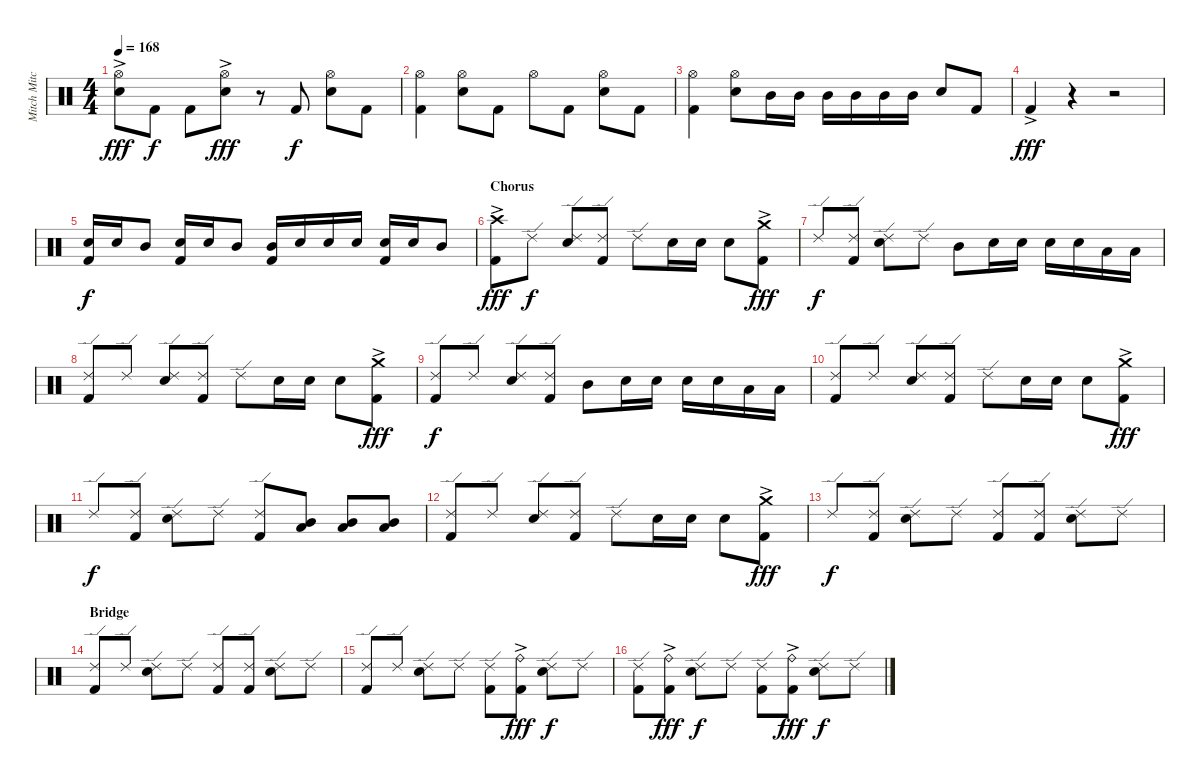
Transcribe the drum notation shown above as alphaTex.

\track ("Mitch Mitchell" "Mitch Mitc") {instrument percussion}
\staff {score}
\articulation defaults
\ts (4 4)
\tempo 168
\clef neutral
\ks c
("Hi-Hat (open)"{ac} "Snare (hit) 2"{ac}).8{dy fff} "Kick (hit) 2".8{dy f} "Kick (hit) 2".8 ("Hi-Hat (open)"{ac} "Snare (hit) 2"{ac}).8{dy fff} r.8 "Kick (hit) 2".8{dy f} ("Hi-Hat (open)" "Snare (hit) 2").8 "Kick (hit) 2".8 |
("Hi-Hat (open)" "Kick (hit) 2").4 ("Hi-Hat (open)" "Snare (hit) 2").8 "Kick (hit) 2".8 "Hi-Hat (open)".8 "Kick (hit) 2".8 ("Hi-Hat (open)" "Snare (hit) 2").8 "Kick (hit) 2".8 |
("Hi-Hat (open)" "Kick (hit) 2").4 ("Hi-Hat (open)" "Snare (hit) 2").8 "Mid Tom (hit)".16 "Mid Tom (hit)".16 "Mid Tom (hit)".16 "Mid Tom (hit)".16 "Mid Tom (hit)".16 "Mid Tom (hit)".16 "Snare (hit) 2".8 "Kick (hit) 2".8 |
"Kick (hit) 2"{ac}.4{dy fff} r.4 r.2 |
("Snare (hit) 2" "Kick (hit) 2").16{dy f} "Snare (hit) 2".16 "Mid Tom (hit)".8 ("Snare (hit) 2" "Kick (hit) 2").16 "Snare (hit) 2".16 "Mid Tom (hit)".8 ("Mid Tom (hit)" "Kick (hit) 2").16 "Snare (hit) 2".16 "Snare (hit) 2".16 "Snare (hit) 2".16 ("Snare (hit) 2" "Kick (hit) 2").16 "Snare (hit) 2".16 "Mid Tom (hit)".8 |
\section ("" "Chorus")
("Crash high (hit)"{ac} "Kick (hit) 2"{ac}).8{dy fff} "Ride (edge) 2".8{dy f} ("Ride (edge) 2" "Snare (hit) 2").8 ("Ride (edge) 2" "Kick (hit) 2").8 "Ride (edge) 2".8 "Snare (hit) 2".16 "Snare (hit) 2".16 "Snare (hit) 2".8 ("Crash medium (hit)"{ac} "Kick (hit) 2"{ac}).8{dy fff} |
"Ride (edge) 2".8{dy f} ("Ride (edge) 2" "Kick (hit) 2").8 ("Ride (edge) 2" "Snare (hit) 2").8 "Ride (edge) 2".8 "Mid Tom (hit)".8 "Snare (hit) 2".16 "Snare (hit) 2".16 "Snare (hit) 2".16 "Snare (hit) 2".16 "Low Tom (hit)".16 "Low Tom (hit)".16 |
("Ride (edge) 2" "Kick (hit) 2").8 "Ride (edge) 2".8 ("Ride (edge) 2" "Snare (hit) 2").8 ("Ride (edge) 2" "Kick (hit) 2").8 "Ride (edge) 2".8 "Snare (hit) 2".16 "Snare (hit) 2".16 "Snare (hit) 2".8 ("Crash medium (hit)"{ac} "Kick (hit) 2"{ac}).8{dy fff} |
("Ride (edge) 2" "Kick (hit) 2").8{dy f} "Ride (edge) 2".8 ("Ride (edge) 2" "Snare (hit) 2").8 ("Ride (edge) 2" "Kick (hit) 2").8 "Mid Tom (hit)".8 "Snare (hit) 2".16 "Snare (hit) 2".16 "Snare (hit) 2".16 "Snare (hit) 2".16 "Low Tom (hit)".16 "Low Tom (hit)".16 |
("Ride (edge) 2" "Kick (hit) 2").8 "Ride (edge) 2".8 ("Ride (edge) 2" "Snare (hit) 2").8 ("Ride (edge) 2" "Kick (hit) 2").8 "Ride (edge) 2".8 "Snare (hit) 2".16 "Snare (hit) 2".16 "Snare (hit) 2".8 ("Crash medium (hit)"{ac} "Kick (hit) 2"{ac}).8{dy fff} |
"Ride (edge) 2".8{dy f} ("Ride (edge) 2" "Kick (hit) 2").8 ("Ride (edge) 2" "Snare (hit) 2").8 "Ride (edge) 2".8 ("Ride (edge) 2" "Kick (hit) 2").8 ("Mid Tom (hit)" "Low Tom (hit)").8 ("Mid Tom (hit)" "Low Tom (hit)").8 ("Mid Tom (hit)" "Low Tom (hit)").8 |
("Ride (edge) 2" "Kick (hit) 2").8 "Ride (edge) 2".8 ("Ride (edge) 2" "Snare (hit) 2").8 ("Ride (edge) 2" "Kick (hit) 2").8 "Ride (edge) 2".8 "Snare (hit) 2".16 "Snare (hit) 2".16 "Snare (hit) 2".8 ("Crash medium (hit)"{ac} "Kick (hit) 2"{ac}).8{dy fff} |
"Ride (edge) 2".8{dy f} ("Ride (edge) 2" "Kick (hit) 2").8 ("Ride (edge) 2" "Snare (hit) 2").8 "Ride (edge) 2".8 ("Ride (edge) 2" "Kick (hit) 2").8 ("Ride (edge) 2" "Kick (hit) 2").8 ("Ride (edge) 2" "Snare (hit) 2").8 "Ride (edge) 2".8 |
\section ("" "Bridge")
("Ride (edge) 2" "Kick (hit) 2").8 "Ride (edge) 2".8 ("Ride (edge) 2" "Snare (hit) 2").8 "Ride (edge) 2".8 ("Ride (edge) 2" "Kick (hit) 2").8 ("Ride (edge) 2" "Kick (hit) 2").8 ("Ride (edge) 2" "Snare (hit) 2").8 "Ride (edge) 2".8 |
("Ride (edge) 2" "Kick (hit) 2").8 "Ride (edge) 2".8 ("Ride (edge) 2" "Snare (hit) 2").8 "Ride (edge) 2".8 ("Ride (edge) 2" "Kick (hit) 2").8 ("Ride (bell)"{ac} "Kick (hit) 2"{ac}).8{dy fff} ("Ride (edge) 2" "Snare (hit) 2").8{dy f} "Ride (edge) 2".8 |
("Ride (edge) 2" "Kick (hit) 2").8 ("Ride (bell)"{ac} "Kick (hit) 2"{ac}).8{dy fff} ("Ride (edge) 2" "Snare (hit) 2").8{dy f} "Ride (edge) 2".8 ("Ride (edge) 2" "Kick (hit) 2").8 ("Ride (bell)"{ac} "Kick (hit) 2"{ac}).8{dy fff} ("Ride (edge) 2" "Snare (hit) 2").8{dy f} "Ride (edge) 2".8
